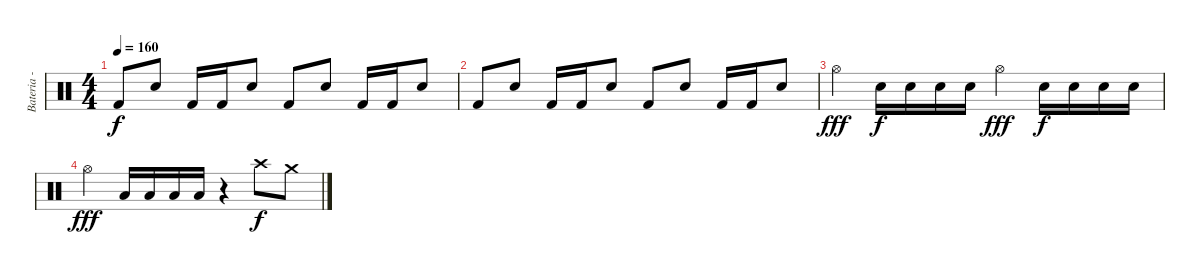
\track ("Bateria - Larzon" "Bateria - ") {instrument percussion}
\staff {score}
\articulation defaults
\ts (4 4)
\tempo 160
\clef neutral
\ks c "Kick (hit) 2".8{dy f} "Snare (hit) 2".8 "Kick (hit) 2".16 "Kick (hit) 2".16 "Snare (hit) 2".8 "Kick (hit) 2".8 "Snare (hit) 2".8 "Kick (hit) 2".16 "Kick (hit) 2".16 "Snare (hit) 2".8
|
"Kick (hit) 2".8 "Snare (hit) 2".8 "Kick (hit) 2".16 "Kick (hit) 2".16 "Snare (hit) 2".8 "Kick (hit) 2".8 "Snare (hit) 2".8 "Kick (hit) 2".16 "Kick (hit) 2".16 "Snare (hit) 2".8 |
"Hi-Hat (open)".4{dy fff} "Snare (hit) 2".16{dy f} "Snare (hit) 2".16 "Snare (hit) 2".16 "Snare (hit) 2".16 "Hi-Hat (open)".4{dy fff} "Snare (hit) 2".16{dy f} "Snare (hit) 2".16 "Snare (hit) 2".16 "Snare (hit) 2".16 |
"Hi-Hat (open)".4{dy fff} "Low Tom (hit)".16 "Low Tom (hit)".16 "Low Tom (hit)".16 "Low Tom (hit)".16 r.4 "Crash high (hit)".8{dy f} "Crash medium (hit)".8
